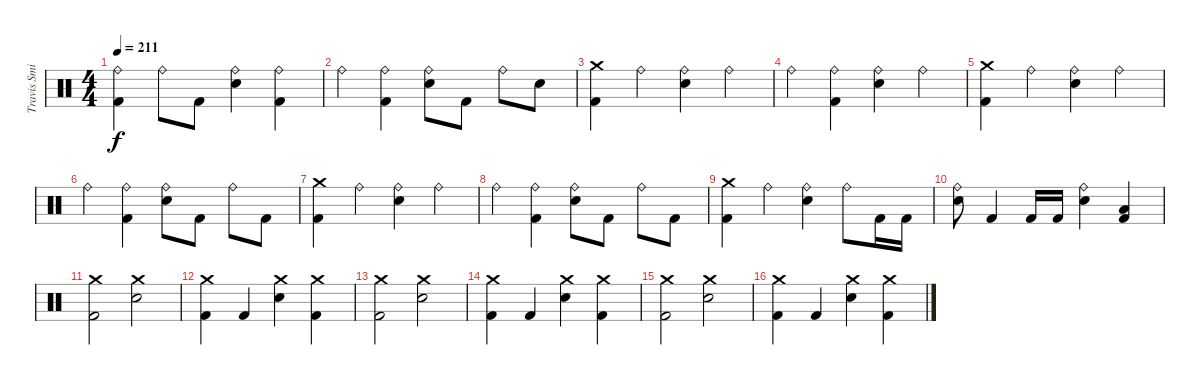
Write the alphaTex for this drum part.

\track ("Travis Smith" "Travis Smi") {instrument percussion}
\staff {score}
\articulation defaults
\ts (4 4)
\tempo 211
\clef neutral
\ks c
("Ride (bell)" "Kick (hit) 2").4{dy f} "Ride (bell)".8 "Kick (hit) 2".8 ("Ride (bell)" "Electric Snare (hit)").4 ("Ride (bell)" "Kick (hit) 2").4 |
"Ride (bell)".4 ("Ride (bell)" "Kick (hit) 2").4 ("Ride (bell)" "Electric Snare (hit)").8 "Kick (hit) 2".8 "Ride (bell)".8 "Electric Snare (hit)".8 |
("Crash medium (hit)" "Kick (hit) 2").4 "Ride (bell)".4 ("Ride (bell)" "Electric Snare (hit)").4 "Ride (bell)".4 |
"Ride (bell)".4 ("Ride (bell)" "Kick (hit) 2").4 ("Ride (bell)" "Electric Snare (hit)").4 "Ride (bell)".4 |
("Crash medium (hit)" "Kick (hit) 2").4 "Ride (bell)".4 ("Ride (bell)" "Electric Snare (hit)").4 "Ride (bell)".4 |
"Ride (bell)".4 ("Ride (bell)" "Kick (hit) 2").4 ("Ride (bell)" "Electric Snare (hit)").8 "Kick (hit) 2".8 "Ride (bell)".8 "Kick (hit) 2".8 |
("Crash medium (hit)" "Kick (hit) 2").4 "Ride (bell)".4 ("Ride (bell)" "Electric Snare (hit)").4 "Ride (bell)".4 |
"Ride (bell)".4 ("Ride (bell)" "Kick (hit) 2").4 ("Ride (bell)" "Electric Snare (hit)").8 "Kick (hit) 2".8 "Ride (bell)".8 "Kick (hit) 2".8 |
("Crash medium (hit)" "Kick (hit) 2").4 "Ride (bell)".4 ("Ride (bell)" "Electric Snare (hit)").4 "Ride (bell)".8 "Kick (hit) 2".16 "Kick (hit) 2".16 |
("Ride (bell)" "Electric Snare (hit)").8 "Kick (hit) 2".4 "Kick (hit) 2".16 "Kick (hit) 2".16 ("Ride (bell)" "Electric Snare (hit)").4 ("Low Tom (hit)" "Kick (hit) 2").4 |
("Crash medium (hit)" "Kick (hit) 2").2 ("Crash medium (hit)" "Electric Snare (hit)").2 |
("Crash medium (hit)" "Kick (hit) 2").4 "Kick (hit) 2".4 ("Crash medium (hit)" "Electric Snare (hit)").4 ("Crash medium (hit)" "Kick (hit) 2").4 |
("Crash medium (hit)" "Kick (hit) 2").2 ("Crash medium (hit)" "Electric Snare (hit)").2 |
("Crash medium (hit)" "Kick (hit) 2").4 "Kick (hit) 2".4 ("Crash medium (hit)" "Electric Snare (hit)").4 ("Crash medium (hit)" "Kick (hit) 2").4 |
("Crash medium (hit)" "Kick (hit) 2").2 ("Crash medium (hit)" "Electric Snare (hit)").2 |
("Crash medium (hit)" "Kick (hit) 2").4 "Kick (hit) 2".4 ("Crash medium (hit)" "Electric Snare (hit)").4 ("Crash medium (hit)" "Kick (hit) 2").4
